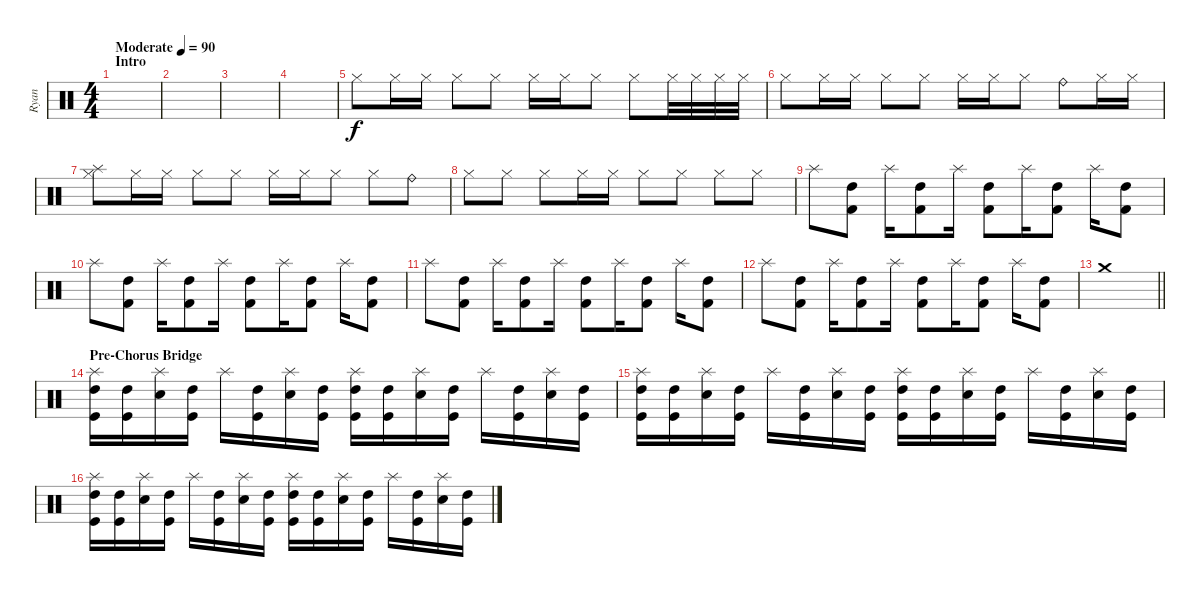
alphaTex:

\track ("Ryan" "Ryan") {instrument percussion}
\staff {score}
\articulation defaults
\ts (4 4)
\section ("" "Intro")
\tempo (90 "Moderate")
\clef neutral
\ks c
|
|
|
|
"Hi-Hat (closed)".8 "Hi-Hat (closed)".16 "Hi-Hat (closed)".16 "Hi-Hat (closed)".8 "Hi-Hat (closed)".8 "Hi-Hat (closed)".16 "Hi-Hat (closed)".16 "Hi-Hat (closed)".8 "Hi-Hat (closed)".8 "Hi-Hat (closed)".32 "Hi-Hat (closed)".32 "Hi-Hat (closed)".32 "Hi-Hat (closed)".32 |
"Hi-Hat (closed)".8 "Hi-Hat (closed)".16 "Hi-Hat (closed)".16 "Hi-Hat (closed)".8 "Hi-Hat (closed)".8 "Hi-Hat (closed)".16 "Hi-Hat (closed)".16 "Hi-Hat (closed)".8 "Ride (bell)".8 "Hi-Hat (closed)".16 "Hi-Hat (closed)".16 |
("Splash (hit)" "Hi-Hat (closed)").8 "Hi-Hat (closed)".16 "Hi-Hat (closed)".16 "Hi-Hat (closed)".8 "Hi-Hat (closed)".8 "Hi-Hat (closed)".16 "Hi-Hat (closed)".16 "Hi-Hat (closed)".8 "Hi-Hat (closed)".8 "Ride (bell)".8 |
"Hi-Hat (closed)".8 "Hi-Hat (closed)".8 "Hi-Hat (closed)".8 "Hi-Hat (closed)".16 "Hi-Hat (closed)".16 "Hi-Hat (closed)".8 "Hi-Hat (closed)".8 "Hi-Hat (closed)".8 "Hi-Hat (closed)".8 |
"Splash (hit)".8 ("Kick (hit) 2" "High Tom (hit)").8 "Splash (hit)".16 ("Kick (hit) 2" "High Tom (hit)").8 "Splash (hit)".16 ("Kick (hit) 2" "High Tom (hit)").8 "Splash (hit)".16 ("Kick (hit) 2" "High Tom (hit)").8 "Splash (hit)".16 ("Kick (hit) 2" "High Tom (hit)").8 |
"Splash (hit)".8 ("Kick (hit) 2" "High Tom (hit)").8 "Splash (hit)".16 ("Kick (hit) 2" "High Tom (hit)").8 "Splash (hit)".16 ("Kick (hit) 2" "High Tom (hit)").8 "Splash (hit)".16 ("Kick (hit) 2" "High Tom (hit)").8 "Splash (hit)".16 ("Kick (hit) 2" "High Tom (hit)").8 |
"Splash (hit)".8 ("Kick (hit) 2" "High Tom (hit)").8 "Splash (hit)".16 ("Kick (hit) 2" "High Tom (hit)").8 "Splash (hit)".16 ("Kick (hit) 2" "High Tom (hit)").8 "Splash (hit)".16 ("Kick (hit) 2" "High Tom (hit)").8 "Splash (hit)".16 ("Kick (hit) 2" "High Tom (hit)").8 |
"Splash (hit)".8 ("Kick (hit) 2" "High Tom (hit)").8 "Splash (hit)".16 ("Kick (hit) 2" "High Tom (hit)").8 "Splash (hit)".16 ("Kick (hit) 2" "High Tom (hit)").8 "Splash (hit)".16 ("Kick (hit) 2" "High Tom (hit)").8 "Splash (hit)".16 ("Kick (hit) 2" "High Tom (hit)").8 |
\barLineRight lightlight "Crash medium (hit)".1{dy f}
|
\section ("" "Pre-Chorus Bridge")
("Splash (hit)" "Kick (hit)" "High Tom (hit)").16 ("Kick (hit)" "High Tom (hit)").16 ("Splash (hit)" "Snare (hit) 2").16 ("Kick (hit)" "High Tom (hit)").16 "Splash (hit)".16 ("Kick (hit)" "High Tom (hit)").16 ("Splash (hit)" "Snare (hit) 2").16 ("Kick (hit)" "High Tom (hit)").16 ("Splash (hit)" "Kick (hit)" "High Tom (hit)").16 ("Kick (hit)" "High Tom (hit)").16 ("Splash (hit)" "Snare (hit) 2").16 ("Kick (hit)" "High Tom (hit)").16 "Splash (hit)".16 ("Kick (hit)" "High Tom (hit)").16 ("Splash (hit)" "Snare (hit) 2").16 ("Kick (hit)" "High Tom (hit)").16 |
("Splash (hit)" "Kick (hit)" "High Tom (hit)").16 ("Kick (hit)" "High Tom (hit)").16 ("Splash (hit)" "Snare (hit) 2").16 ("Kick (hit)" "High Tom (hit)").16 "Splash (hit)".16 ("Kick (hit)" "High Tom (hit)").16 ("Splash (hit)" "Snare (hit) 2").16 ("Kick (hit)" "High Tom (hit)").16 ("Splash (hit)" "Kick (hit)" "High Tom (hit)").16 ("Kick (hit)" "High Tom (hit)").16 ("Splash (hit)" "Snare (hit) 2").16 ("Kick (hit)" "High Tom (hit)").16 "Splash (hit)".16 ("Kick (hit)" "High Tom (hit)").16 ("Splash (hit)" "Snare (hit) 2").16 ("Kick (hit)" "High Tom (hit)").16 |
("Splash (hit)" "Kick (hit)" "High Tom (hit)").16 ("Kick (hit)" "High Tom (hit)").16 ("Splash (hit)" "Snare (hit) 2").16 ("Kick (hit)" "High Tom (hit)").16 "Splash (hit)".16 ("Kick (hit)" "High Tom (hit)").16 ("Splash (hit)" "Snare (hit) 2").16 ("Kick (hit)" "High Tom (hit)").16 ("Splash (hit)" "Kick (hit)" "High Tom (hit)").16 ("Kick (hit)" "High Tom (hit)").16 ("Splash (hit)" "Snare (hit) 2").16 ("Kick (hit)" "High Tom (hit)").16 "Splash (hit)".16 ("Kick (hit)" "High Tom (hit)").16 ("Splash (hit)" "Snare (hit) 2").16 ("Kick (hit)" "High Tom (hit)").16
